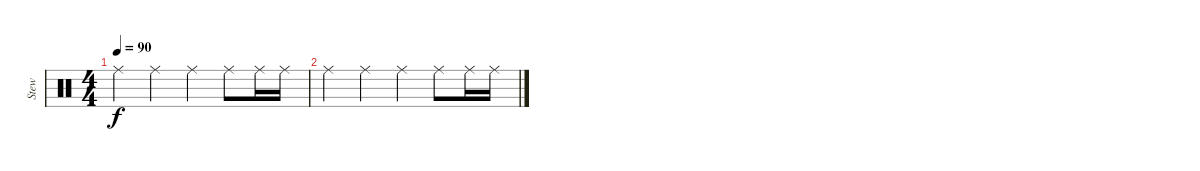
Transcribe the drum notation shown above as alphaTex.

\track ("Stew" "Stew") {instrument percussion}
\staff {score}
\articulation defaults
\ts (4 4)
\tempo 90
\clef neutral
\ks c "Ride (middle)".4{dy f} "Ride (middle)".4 "Ride (middle)".4 "Ride (middle)".8 "Ride (middle)".16 "Ride (middle)".16
|
"Ride (middle)".4 "Ride (middle)".4 "Ride (middle)".4 "Ride (middle)".8 "Ride (middle)".16 "Ride (middle)".16
